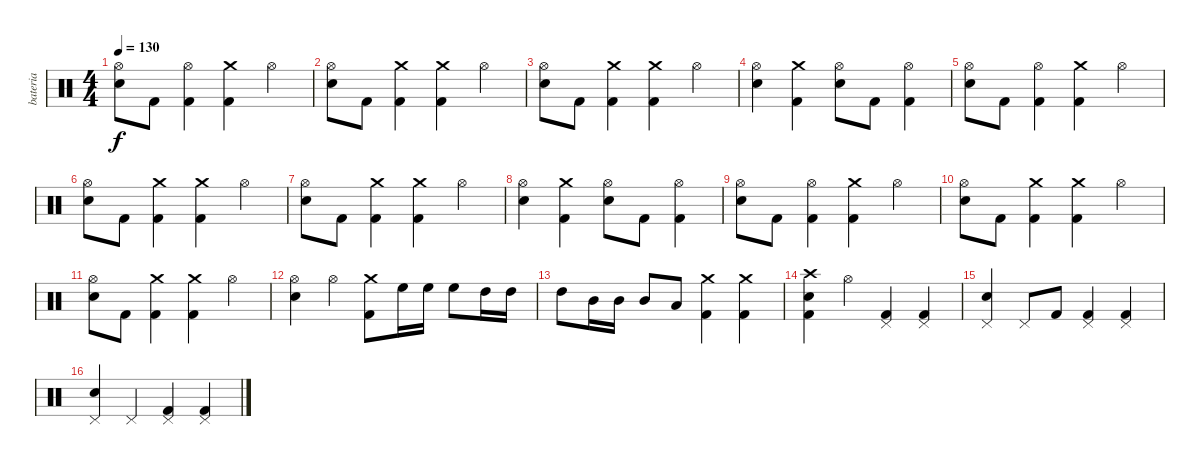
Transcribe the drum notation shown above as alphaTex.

\track ("bateria" "bateria") {instrument percussion}
\staff {score}
\articulation defaults
\ts (4 4)
\tempo 130
\clef neutral
\ks c
("Hi-Hat (open)" "Snare (hit) 2").8{dy f} "Kick (hit) 2".8 ("Hi-Hat (open)" "Kick (hit) 2").4 ("Crash medium (hit)" "Kick (hit) 2").4 "Hi-Hat (open)".4 |
("Hi-Hat (open)" "Snare (hit) 2").8 "Kick (hit) 2".8 ("Crash medium (hit)" "Kick (hit) 2").4 ("Crash medium (hit)" "Kick (hit) 2").4 "Hi-Hat (open)".4 |
("Hi-Hat (open)" "Snare (hit) 2").8 "Kick (hit) 2".8 ("Crash medium (hit)" "Kick (hit) 2").4 ("Crash medium (hit)" "Kick (hit) 2").4 "Hi-Hat (open)".4 |
("Hi-Hat (open)" "Snare (hit) 2").4 ("Crash medium (hit)" "Kick (hit) 2").4 ("Hi-Hat (open)" "Snare (hit) 2").8 "Kick (hit) 2".8 ("Hi-Hat (open)" "Kick (hit) 2").4 |
("Hi-Hat (open)" "Snare (hit) 2").8 "Kick (hit) 2".8 ("Hi-Hat (open)" "Kick (hit) 2").4 ("Crash medium (hit)" "Kick (hit) 2").4 "Hi-Hat (open)".4 |
("Hi-Hat (open)" "Snare (hit) 2").8 "Kick (hit) 2".8 ("Crash medium (hit)" "Kick (hit) 2").4 ("Crash medium (hit)" "Kick (hit) 2").4 "Hi-Hat (open)".4 |
("Hi-Hat (open)" "Snare (hit) 2").8 "Kick (hit) 2".8 ("Crash medium (hit)" "Kick (hit) 2").4 ("Crash medium (hit)" "Kick (hit) 2").4 "Hi-Hat (open)".4 |
("Hi-Hat (open)" "Snare (hit) 2").4 ("Crash medium (hit)" "Kick (hit) 2").4 ("Hi-Hat (open)" "Snare (hit) 2").8 "Kick (hit) 2".8 ("Hi-Hat (open)" "Kick (hit) 2").4 |
("Hi-Hat (open)" "Snare (hit) 2").8 "Kick (hit) 2".8 ("Hi-Hat (open)" "Kick (hit) 2").4 ("Crash medium (hit)" "Kick (hit) 2").4 "Hi-Hat (open)".4 |
("Hi-Hat (open)" "Snare (hit) 2").8 "Kick (hit) 2".8 ("Crash medium (hit)" "Kick (hit) 2").4 ("Crash medium (hit)" "Kick (hit) 2").4 "Hi-Hat (open)".4 |
("Hi-Hat (open)" "Snare (hit) 2").8 "Kick (hit) 2".8 ("Crash medium (hit)" "Kick (hit) 2").4 ("Crash medium (hit)" "Kick (hit) 2").4 "Hi-Hat (open)".4 |
("Hi-Hat (open)" "Snare (hit) 2").4 "Hi-Hat (open)".4 ("Crash medium (hit)" "Kick (hit) 2").8 "High Floor Tom (hit)".16 "High Floor Tom (hit)".16 "High Floor Tom (hit)".8 "High Tom (hit)".16 "High Tom (hit)".16 |
"High Tom (hit)".8 "Mid Tom (hit)".16 "Mid Tom (hit)".16 "Mid Tom (hit)".8 "Low Tom (hit)".8 ("Crash medium (hit)" "Kick (hit) 2").4 ("Crash medium (hit)" "Kick (hit) 2").4 |
("Crash high (hit)" "Snare (hit) 2" "Kick (hit) 2").4 "Hi-Hat (open)".4 ("Pedal Hi-Hat (hit)" "Kick (hit) 2").4 ("Pedal Hi-Hat (hit)" "Kick (hit) 2").4 |
("Pedal Hi-Hat (hit)" "Snare (hit) 2").4 "Pedal Hi-Hat (hit)".8 "Kick (hit) 2".8 ("Pedal Hi-Hat (hit)" "Kick (hit) 2").4 ("Pedal Hi-Hat (hit)" "Kick (hit) 2").4 |
("Pedal Hi-Hat (hit)" "Snare (hit) 2").4 "Pedal Hi-Hat (hit)".4 ("Pedal Hi-Hat (hit)" "Kick (hit) 2").4 ("Pedal Hi-Hat (hit)" "Kick (hit) 2").4
